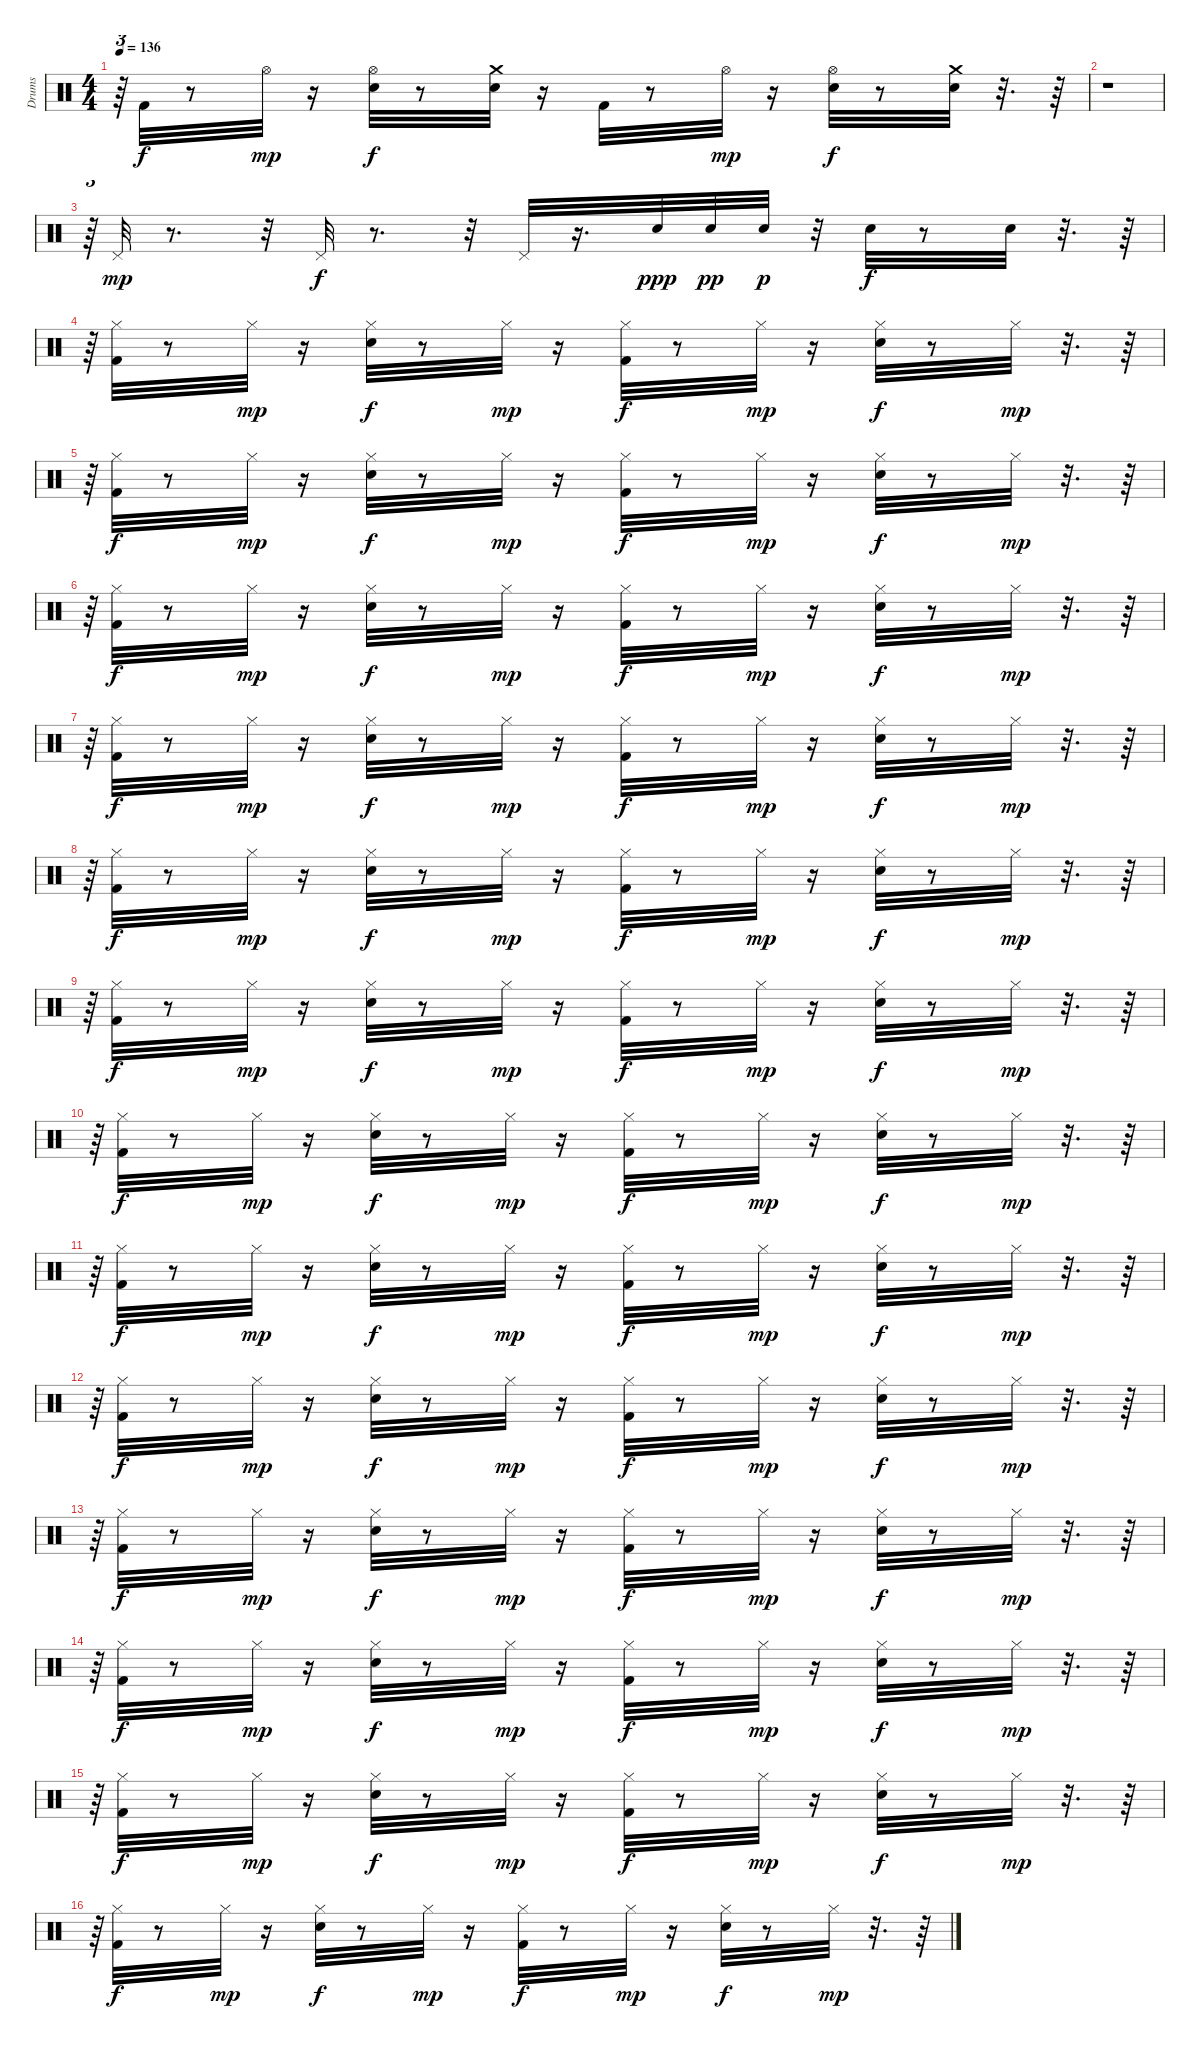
\track ("Drums" "Drums") {instrument percussion}
\staff {score}
\articulation defaults
\ts (4 4)
\tempo 136
\clef neutral
\ks c
r.64{tu (3 2) dy f} "Kick (hit) 2".32 r.8 "Hi-Hat (open)".32{dy mp} r.16 ("Hi-Hat (open)" "Electric Snare (hit)").32{dy f} r.8 ("Crash medium (hit)" "Electric Snare (hit)").32 r.16 "Kick (hit) 2".32 r.8 "Hi-Hat (open)".32{dy mp} r.16 ("Hi-Hat (open)" "Electric Snare (hit)").32{dy f} r.8 ("Crash medium (hit)" "Electric Snare (hit)").32 r.32{d} r.64 |
r.1 |
r.64{tu (3 2)} "Pedal Hi-Hat (hit)".32{dy mp} r.8{d} r.32 "Pedal Hi-Hat (hit)".32{dy f} r.8{d} r.32 "Pedal Hi-Hat (hit)".32 r.16{d} "Electric Snare (hit)".32{dy ppp} "Electric Snare (hit)".32{dy pp} "Electric Snare (hit)".32{dy p} r.32 "Electric Snare (hit)".32{dy f} r.8 "Electric Snare (hit)".32 r.32{d} r.64 |
r.64{tu (3 2)} ("Kick (hit) 2" "Hi-Hat (closed)").32 r.8 "Hi-Hat (closed)".32{dy mp} r.16 ("Hi-Hat (closed)" "Electric Snare (hit)").32{dy f} r.8 "Hi-Hat (closed)".32{dy mp} r.16 ("Hi-Hat (closed)" "Kick (hit) 2").32{dy f} r.8 "Hi-Hat (closed)".32{dy mp} r.16 ("Hi-Hat (closed)" "Electric Snare (hit)").32{dy f} r.8 "Hi-Hat (closed)".32{dy mp} r.32{d} r.64 |
r.64{tu (3 2)} ("Kick (hit) 2" "Hi-Hat (closed)").32{dy f} r.8 "Hi-Hat (closed)".32{dy mp} r.16 ("Hi-Hat (closed)" "Electric Snare (hit)").32{dy f} r.8 "Hi-Hat (closed)".32{dy mp} r.16 ("Hi-Hat (closed)" "Kick (hit) 2").32{dy f} r.8 "Hi-Hat (closed)".32{dy mp} r.16 ("Hi-Hat (closed)" "Electric Snare (hit)").32{dy f} r.8 "Hi-Hat (closed)".32{dy mp} r.32{d} r.64 |
r.64{tu (3 2)} ("Kick (hit) 2" "Hi-Hat (closed)").32{dy f} r.8 "Hi-Hat (closed)".32{dy mp} r.16 ("Hi-Hat (closed)" "Electric Snare (hit)").32{dy f} r.8 "Hi-Hat (closed)".32{dy mp} r.16 ("Hi-Hat (closed)" "Kick (hit) 2").32{dy f} r.8 "Hi-Hat (closed)".32{dy mp} r.16 ("Hi-Hat (closed)" "Electric Snare (hit)").32{dy f} r.8 "Hi-Hat (closed)".32{dy mp} r.32{d} r.64 |
r.64{tu (3 2)} ("Kick (hit) 2" "Hi-Hat (closed)").32{dy f} r.8 "Hi-Hat (closed)".32{dy mp} r.16 ("Hi-Hat (closed)" "Electric Snare (hit)").32{dy f} r.8 "Hi-Hat (closed)".32{dy mp} r.16 ("Hi-Hat (closed)" "Kick (hit) 2").32{dy f} r.8 "Hi-Hat (closed)".32{dy mp} r.16 ("Hi-Hat (closed)" "Electric Snare (hit)").32{dy f} r.8 "Hi-Hat (closed)".32{dy mp} r.32{d} r.64 |
r.64{tu (3 2)} ("Kick (hit) 2" "Hi-Hat (closed)").32{dy f} r.8 "Hi-Hat (closed)".32{dy mp} r.16 ("Hi-Hat (closed)" "Electric Snare (hit)").32{dy f} r.8 "Hi-Hat (closed)".32{dy mp} r.16 ("Hi-Hat (closed)" "Kick (hit) 2").32{dy f} r.8 "Hi-Hat (closed)".32{dy mp} r.16 ("Hi-Hat (closed)" "Electric Snare (hit)").32{dy f} r.8 "Hi-Hat (closed)".32{dy mp} r.32{d} r.64 |
r.64{tu (3 2)} ("Kick (hit) 2" "Hi-Hat (closed)").32{dy f} r.8 "Hi-Hat (closed)".32{dy mp} r.16 ("Hi-Hat (closed)" "Electric Snare (hit)").32{dy f} r.8 "Hi-Hat (closed)".32{dy mp} r.16 ("Hi-Hat (closed)" "Kick (hit) 2").32{dy f} r.8 "Hi-Hat (closed)".32{dy mp} r.16 ("Hi-Hat (closed)" "Electric Snare (hit)").32{dy f} r.8 "Hi-Hat (closed)".32{dy mp} r.32{d} r.64 |
r.64{tu (3 2)} ("Kick (hit) 2" "Hi-Hat (closed)").32{dy f} r.8 "Hi-Hat (closed)".32{dy mp} r.16 ("Hi-Hat (closed)" "Electric Snare (hit)").32{dy f} r.8 "Hi-Hat (closed)".32{dy mp} r.16 ("Hi-Hat (closed)" "Kick (hit) 2").32{dy f} r.8 "Hi-Hat (closed)".32{dy mp} r.16 ("Hi-Hat (closed)" "Electric Snare (hit)").32{dy f} r.8 "Hi-Hat (closed)".32{dy mp} r.32{d} r.64 |
r.64{tu (3 2)} ("Kick (hit) 2" "Hi-Hat (closed)").32{dy f} r.8 "Hi-Hat (closed)".32{dy mp} r.16 ("Hi-Hat (closed)" "Electric Snare (hit)").32{dy f} r.8 "Hi-Hat (closed)".32{dy mp} r.16 ("Hi-Hat (closed)" "Kick (hit) 2").32{dy f} r.8 "Hi-Hat (closed)".32{dy mp} r.16 ("Hi-Hat (closed)" "Electric Snare (hit)").32{dy f} r.8 "Hi-Hat (closed)".32{dy mp} r.32{d} r.64 |
r.64{tu (3 2)} ("Kick (hit) 2" "Hi-Hat (closed)").32{dy f} r.8 "Hi-Hat (closed)".32{dy mp} r.16 ("Hi-Hat (closed)" "Electric Snare (hit)").32{dy f} r.8 "Hi-Hat (closed)".32{dy mp} r.16 ("Hi-Hat (closed)" "Kick (hit) 2").32{dy f} r.8 "Hi-Hat (closed)".32{dy mp} r.16 ("Hi-Hat (closed)" "Electric Snare (hit)").32{dy f} r.8 "Hi-Hat (closed)".32{dy mp} r.32{d} r.64 |
r.64{tu (3 2)} ("Kick (hit) 2" "Hi-Hat (closed)").32{dy f} r.8 "Hi-Hat (closed)".32{dy mp} r.16 ("Hi-Hat (closed)" "Electric Snare (hit)").32{dy f} r.8 "Hi-Hat (closed)".32{dy mp} r.16 ("Hi-Hat (closed)" "Kick (hit) 2").32{dy f} r.8 "Hi-Hat (closed)".32{dy mp} r.16 ("Hi-Hat (closed)" "Electric Snare (hit)").32{dy f} r.8 "Hi-Hat (closed)".32{dy mp} r.32{d} r.64 |
r.64{tu (3 2)} ("Kick (hit) 2" "Hi-Hat (closed)").32{dy f} r.8 "Hi-Hat (closed)".32{dy mp} r.16 ("Hi-Hat (closed)" "Electric Snare (hit)").32{dy f} r.8 "Hi-Hat (closed)".32{dy mp} r.16 ("Hi-Hat (closed)" "Kick (hit) 2").32{dy f} r.8 "Hi-Hat (closed)".32{dy mp} r.16 ("Hi-Hat (closed)" "Electric Snare (hit)").32{dy f} r.8 "Hi-Hat (closed)".32{dy mp} r.32{d} r.64 |
r.64{tu (3 2)} ("Kick (hit) 2" "Hi-Hat (closed)").32{dy f} r.8 "Hi-Hat (closed)".32{dy mp} r.16 ("Hi-Hat (closed)" "Electric Snare (hit)").32{dy f} r.8 "Hi-Hat (closed)".32{dy mp} r.16 ("Hi-Hat (closed)" "Kick (hit) 2").32{dy f} r.8 "Hi-Hat (closed)".32{dy mp} r.16 ("Hi-Hat (closed)" "Electric Snare (hit)").32{dy f} r.8 "Hi-Hat (closed)".32{dy mp} r.32{d} r.64 |
r.64{tu (3 2)} ("Kick (hit) 2" "Hi-Hat (closed)").32{dy f} r.8 "Hi-Hat (closed)".32{dy mp} r.16 ("Hi-Hat (closed)" "Electric Snare (hit)").32{dy f} r.8 "Hi-Hat (closed)".32{dy mp} r.16 ("Hi-Hat (closed)" "Kick (hit) 2").32{dy f} r.8 "Hi-Hat (closed)".32{dy mp} r.16 ("Hi-Hat (closed)" "Electric Snare (hit)").32{dy f} r.8 "Hi-Hat (closed)".32{dy mp} r.32{d} r.64
